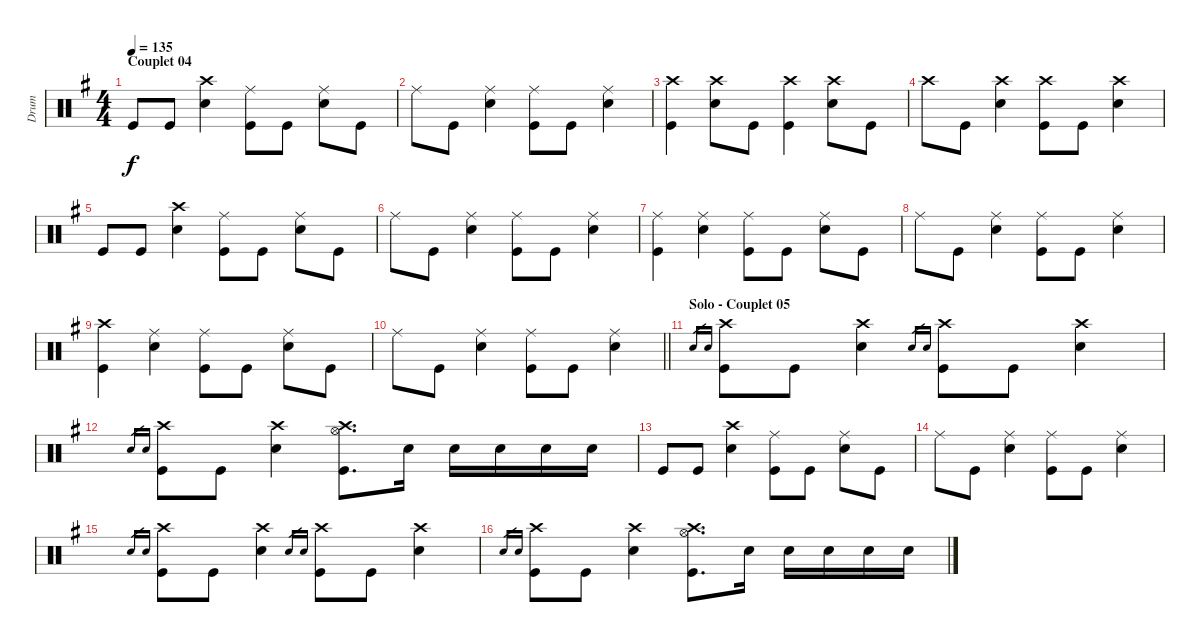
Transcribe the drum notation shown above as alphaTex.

\track ("Drum" "Drum") {instrument percussion}
\staff {score}
\articulation defaults
\ts (4 4)
\section ("" "Couplet 04")
\tempo 135
\clef neutral
\ks g "Kick (hit)".8{dy f} "Kick (hit)".8
("Crash high (hit)" "Snare (hit) 2").4 ("Ride (middle)" "Kick (hit)").8 "Kick (hit)".8 ("Snare (hit) 2" "Ride (middle)").8 "Kick (hit)".8 |
"Ride (middle)".8 "Kick (hit)".8 ("Snare (hit) 2" "Ride (middle)").4 ("Kick (hit)" "Ride (middle)").8 "Kick (hit)".8 ("Snare (hit) 2" "Ride (middle)").4 |
("Crash high (hit)" "Kick (hit)").4 ("Crash high (hit)" "Snare (hit) 2").8 "Kick (hit)".8 ("Kick (hit)" "Crash high (hit)").4 ("Crash high (hit)" "Snare (hit) 2").8 "Kick (hit)".8 |
"Crash high (hit)".8 "Kick (hit)".8 ("Snare (hit) 2" "Crash high (hit)").4 ("Kick (hit)" "Crash high (hit)").8 "Kick (hit)".8 ("Snare (hit) 2" "Crash high (hit)").4 |
"Kick (hit)".8 "Kick (hit)".8 ("Crash high (hit)" "Snare (hit) 2").4 ("Ride (middle)" "Kick (hit)").8 "Kick (hit)".8 ("Snare (hit) 2" "Ride (middle)").8 "Kick (hit)".8 |
"Ride (middle)".8 "Kick (hit)".8 ("Snare (hit) 2" "Ride (middle)").4 ("Kick (hit)" "Ride (middle)").8 "Kick (hit)".8 ("Snare (hit) 2" "Ride (middle)").4 |
("Ride (middle)" "Kick (hit)").4 ("Snare (hit) 2" "Ride (middle)").4 ("Ride (middle)" "Kick (hit)").8 "Kick (hit)".8 ("Snare (hit) 2" "Ride (middle)").8 "Kick (hit)".8 |
"Ride (middle)".8 "Kick (hit)".8 ("Snare (hit) 2" "Ride (middle)").4 ("Kick (hit)" "Ride (middle)").8 "Kick (hit)".8 ("Snare (hit) 2" "Ride (middle)").4 |
("Crash high (hit)" "Kick (hit)").4 ("Snare (hit) 2" "Ride (middle)").4 ("Ride (middle)" "Kick (hit)").8 "Kick (hit)".8 ("Snare (hit) 2" "Ride (middle)").8 "Kick (hit)".8 |
\barLineRight lightlight "Ride (middle)".8 "Kick (hit)".8
("Snare (hit) 2" "Ride (middle)").4 ("Kick (hit)" "Ride (middle)").8 "Kick (hit)".8 ("Snare (hit) 2" "Ride (middle)").4 |
\section ("" "Solo - Couplet 05")
"Snare (hit) 2".16{gr} "Electric Snare (hit)".16{gr} ("Kick (hit)" "Crash high (hit)").8 "Kick (hit)".8 ("Snare (hit) 2" "Crash high (hit)").4 "Snare (hit) 2".16{gr} "Electric Snare (hit)".16{gr} ("Kick (hit)" "Crash high (hit)").8 "Kick (hit)".8 ("Snare (hit) 2" "Crash high (hit)").4 |
"Snare (hit) 2".16{gr} "Electric Snare (hit)".16{gr} ("Kick (hit)" "Crash high (hit)").8 "Kick (hit)".8 ("Snare (hit) 2" "Crash high (hit)").4 ("Hi-Hat (open)" "Crash high (hit)" "Kick (hit)").8{d} "Snare (hit) 2".16 "Snare (hit) 2".16 "Snare (hit) 2".16 "Snare (hit) 2".16 "Snare (hit) 2".16 |
"Kick (hit)".8 "Kick (hit)".8 ("Crash high (hit)" "Snare (hit) 2").4 ("Ride (middle)" "Kick (hit)").8 "Kick (hit)".8 ("Snare (hit) 2" "Ride (middle)").8 "Kick (hit)".8 |
"Ride (middle)".8 "Kick (hit)".8 ("Snare (hit) 2" "Ride (middle)").4 ("Kick (hit)" "Ride (middle)").8 "Kick (hit)".8 ("Snare (hit) 2" "Ride (middle)").4 |
"Snare (hit) 2".16{gr} "Electric Snare (hit)".16{gr} ("Kick (hit)" "Crash high (hit)").8 "Kick (hit)".8 ("Snare (hit) 2" "Crash high (hit)").4 "Snare (hit) 2".16{gr} "Electric Snare (hit)".16{gr} ("Kick (hit)" "Crash high (hit)").8 "Kick (hit)".8 ("Snare (hit) 2" "Crash high (hit)").4 |
"Snare (hit) 2".16{gr} "Electric Snare (hit)".16{gr} ("Kick (hit)" "Crash high (hit)").8 "Kick (hit)".8 ("Snare (hit) 2" "Crash high (hit)").4 ("Hi-Hat (open)" "Crash high (hit)" "Kick (hit)").8{d} "Snare (hit) 2".16 "Snare (hit) 2".16 "Snare (hit) 2".16 "Snare (hit) 2".16 "Snare (hit) 2".16
